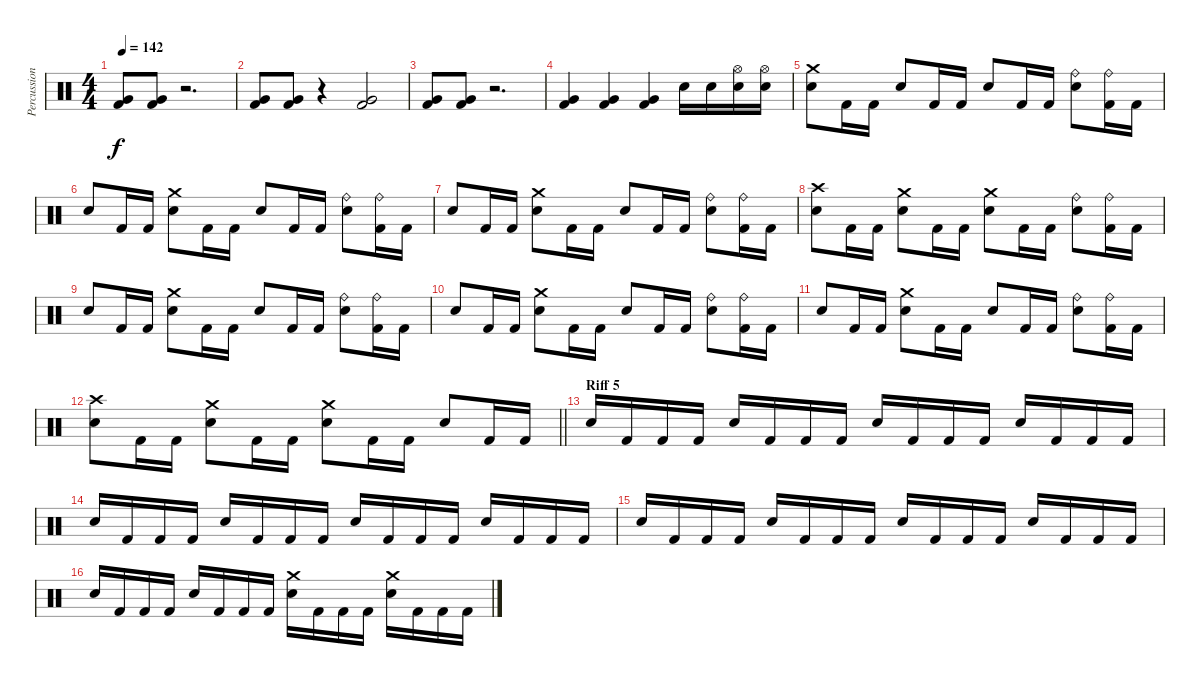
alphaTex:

\track ("Percussions" "Percussion") {instrument percussion}
\staff {score}
\articulation defaults
\ts (4 4)
\tempo 142
\clef neutral
\ks c
("Very Low Tom (hit)" "Kick (hit) 2").8{dy f} ("Very Low Tom (hit)" "Kick (hit) 2").8 r.2{d} |
("Very Low Tom (hit)" "Kick (hit) 2").8 ("Very Low Tom (hit)" "Kick (hit) 2").8 r.4 ("Very Low Tom (hit)" "Kick (hit) 2").2 |
("Very Low Tom (hit)" "Kick (hit) 2").8 ("Very Low Tom (hit)" "Kick (hit) 2").8 r.2{d} |
("Very Low Tom (hit)" "Kick (hit) 2").4 ("Very Low Tom (hit)" "Kick (hit) 2").4 ("Very Low Tom (hit)" "Kick (hit) 2").4 "Electric Snare (hit)".16 "Electric Snare (hit)".16 ("Hi-Hat (open)" "Electric Snare (hit)").16 ("Hi-Hat (open)" "Electric Snare (hit)").16 |
("Crash medium (hit)" "Electric Snare (hit)").8 "Kick (hit) 2".16 "Kick (hit) 2".16 "Electric Snare (hit)".8 "Kick (hit) 2".16 "Kick (hit) 2".16 "Electric Snare (hit)".8 "Kick (hit) 2".16 "Kick (hit) 2".16 ("Ride (bell)" "Electric Snare (hit)").8 ("Ride (bell)" "Kick (hit) 2").16 "Kick (hit) 2".16 |
"Electric Snare (hit)".8 "Kick (hit) 2".16 "Kick (hit) 2".16 ("Crash medium (hit)" "Electric Snare (hit)").8 "Kick (hit) 2".16 "Kick (hit) 2".16 "Electric Snare (hit)".8 "Kick (hit) 2".16 "Kick (hit) 2".16 ("Ride (bell)" "Electric Snare (hit)").8 ("Ride (bell)" "Kick (hit) 2").16 "Kick (hit) 2".16 |
"Electric Snare (hit)".8 "Kick (hit) 2".16 "Kick (hit) 2".16 ("Crash medium (hit)" "Electric Snare (hit)").8 "Kick (hit) 2".16 "Kick (hit) 2".16 "Electric Snare (hit)".8 "Kick (hit) 2".16 "Kick (hit) 2".16 ("Ride (bell)" "Electric Snare (hit)").8 ("Ride (bell)" "Kick (hit) 2").16 "Kick (hit) 2".16 |
("Crash high (hit)" "Electric Snare (hit)").8 "Kick (hit) 2".16 "Kick (hit) 2".16 ("Crash medium (hit)" "Electric Snare (hit)").8 "Kick (hit) 2".16 "Kick (hit) 2".16 ("Crash medium (hit)" "Electric Snare (hit)").8 "Kick (hit) 2".16 "Kick (hit) 2".16 ("Ride (bell)" "Electric Snare (hit)").8 ("Ride (bell)" "Kick (hit) 2").16 "Kick (hit) 2".16 |
"Electric Snare (hit)".8 "Kick (hit) 2".16 "Kick (hit) 2".16 ("Crash medium (hit)" "Electric Snare (hit)").8 "Kick (hit) 2".16 "Kick (hit) 2".16 "Electric Snare (hit)".8 "Kick (hit) 2".16 "Kick (hit) 2".16 ("Ride (bell)" "Electric Snare (hit)").8 ("Ride (bell)" "Kick (hit) 2").16 "Kick (hit) 2".16 |
"Electric Snare (hit)".8 "Kick (hit) 2".16 "Kick (hit) 2".16 ("Crash medium (hit)" "Electric Snare (hit)").8 "Kick (hit) 2".16 "Kick (hit) 2".16 "Electric Snare (hit)".8 "Kick (hit) 2".16 "Kick (hit) 2".16 ("Ride (bell)" "Electric Snare (hit)").8 ("Ride (bell)" "Kick (hit) 2").16 "Kick (hit) 2".16 |
"Electric Snare (hit)".8 "Kick (hit) 2".16 "Kick (hit) 2".16 ("Crash medium (hit)" "Electric Snare (hit)").8 "Kick (hit) 2".16 "Kick (hit) 2".16 "Electric Snare (hit)".8 "Kick (hit) 2".16 "Kick (hit) 2".16 ("Ride (bell)" "Electric Snare (hit)").8 ("Ride (bell)" "Kick (hit) 2").16 "Kick (hit) 2".16 |
\barLineRight lightlight
("Crash high (hit)" "Electric Snare (hit)").8 "Kick (hit) 2".16 "Kick (hit) 2".16 ("Crash medium (hit)" "Electric Snare (hit)").8 "Kick (hit) 2".16 "Kick (hit) 2".16 ("Crash medium (hit)" "Electric Snare (hit)").8 "Kick (hit) 2".16 "Kick (hit) 2".16 "Electric Snare (hit)".8 "Kick (hit) 2".16 "Kick (hit) 2".16 |
\section ("" "Riff 5")
"Electric Snare (hit)".16 "Kick (hit) 2".16 "Kick (hit) 2".16 "Kick (hit) 2".16 "Electric Snare (hit)".16 "Kick (hit) 2".16 "Kick (hit) 2".16 "Kick (hit) 2".16 "Electric Snare (hit)".16 "Kick (hit) 2".16 "Kick (hit) 2".16 "Kick (hit) 2".16 "Electric Snare (hit)".16 "Kick (hit) 2".16 "Kick (hit) 2".16 "Kick (hit) 2".16 |
"Electric Snare (hit)".16 "Kick (hit) 2".16 "Kick (hit) 2".16 "Kick (hit) 2".16 "Electric Snare (hit)".16 "Kick (hit) 2".16 "Kick (hit) 2".16 "Kick (hit) 2".16 "Electric Snare (hit)".16 "Kick (hit) 2".16 "Kick (hit) 2".16 "Kick (hit) 2".16 "Electric Snare (hit)".16 "Kick (hit) 2".16 "Kick (hit) 2".16 "Kick (hit) 2".16 |
"Electric Snare (hit)".16 "Kick (hit) 2".16 "Kick (hit) 2".16 "Kick (hit) 2".16 "Electric Snare (hit)".16 "Kick (hit) 2".16 "Kick (hit) 2".16 "Kick (hit) 2".16 "Electric Snare (hit)".16 "Kick (hit) 2".16 "Kick (hit) 2".16 "Kick (hit) 2".16 "Electric Snare (hit)".16 "Kick (hit) 2".16 "Kick (hit) 2".16 "Kick (hit) 2".16 |
"Electric Snare (hit)".16 "Kick (hit) 2".16 "Kick (hit) 2".16 "Kick (hit) 2".16 "Electric Snare (hit)".16 "Kick (hit) 2".16 "Kick (hit) 2".16 "Kick (hit) 2".16 ("Crash medium (hit)" "Electric Snare (hit)").16 "Kick (hit) 2".16 "Kick (hit) 2".16 "Kick (hit) 2".16 ("Crash medium (hit)" "Electric Snare (hit)").16 "Kick (hit) 2".16 "Kick (hit) 2".16 "Kick (hit) 2".16
